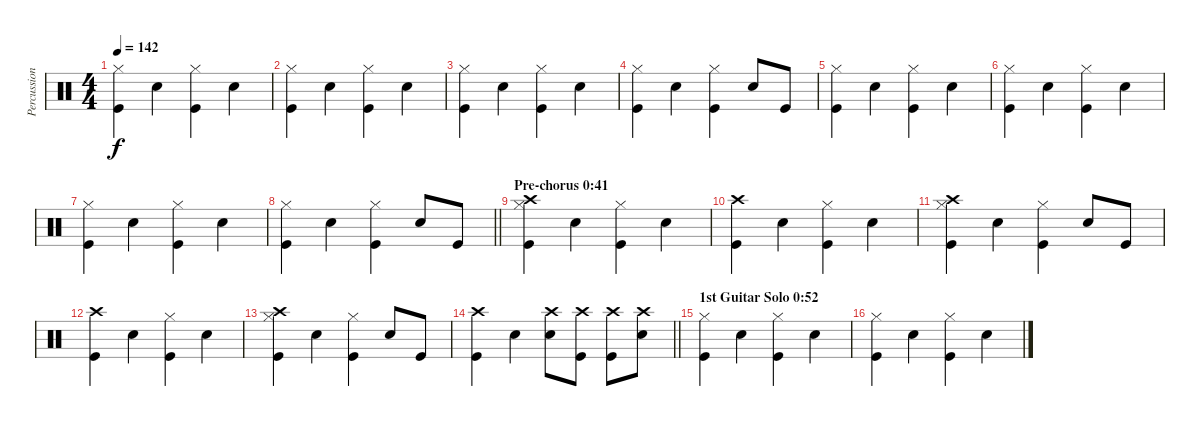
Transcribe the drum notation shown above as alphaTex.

\track ("Percussion" "Percussion") {instrument percussion}
\staff {score}
\articulation defaults
\ts (4 4)
\tempo 142
\clef neutral
\ks c
("Hi-Hat (closed)" "Kick (hit)").4{dy f} "Snare (hit) 2".4 ("Hi-Hat (closed)" "Kick (hit)").4 "Snare (hit) 2".4 |
("Hi-Hat (closed)" "Kick (hit)").4 "Snare (hit) 2".4 ("Hi-Hat (closed)" "Kick (hit)").4 "Snare (hit) 2".4 |
("Hi-Hat (closed)" "Kick (hit)").4 "Snare (hit) 2".4 ("Hi-Hat (closed)" "Kick (hit)").4 "Snare (hit) 2".4 |
("Hi-Hat (closed)" "Kick (hit)").4 "Snare (hit) 2".4 ("Hi-Hat (closed)" "Kick (hit)").4 "Snare (hit) 2".8 "Kick (hit)".8 |
("Hi-Hat (closed)" "Kick (hit)").4 "Snare (hit) 2".4 ("Hi-Hat (closed)" "Kick (hit)").4 "Snare (hit) 2".4 |
("Hi-Hat (closed)" "Kick (hit)").4 "Snare (hit) 2".4 ("Hi-Hat (closed)" "Kick (hit)").4 "Snare (hit) 2".4 |
("Hi-Hat (closed)" "Kick (hit)").4 "Snare (hit) 2".4 ("Hi-Hat (closed)" "Kick (hit)").4 "Snare (hit) 2".4 |
\barLineRight lightlight
("Hi-Hat (closed)" "Kick (hit)").4 "Snare (hit) 2".4 ("Hi-Hat (closed)" "Kick (hit)").4 "Snare (hit) 2".8 "Kick (hit)".8 |
\section ("" "Pre-chorus 0:41")
("Crash high (hit)" "Hi-Hat (closed)" "Kick (hit)").4 "Snare (hit) 2".4 ("Hi-Hat (closed)" "Kick (hit)").4 "Snare (hit) 2".4 |
("Crash high (hit)" "Kick (hit)").4 "Snare (hit) 2".4 ("Hi-Hat (closed)" "Kick (hit)").4 "Snare (hit) 2".4 |
("Crash high (hit)" "Hi-Hat (closed)" "Kick (hit)").4 "Snare (hit) 2".4 ("Hi-Hat (closed)" "Kick (hit)").4 "Snare (hit) 2".8 "Kick (hit)".8 |
("Crash high (hit)" "Kick (hit)").4 "Snare (hit) 2".4 ("Hi-Hat (closed)" "Kick (hit)").4 "Snare (hit) 2".4 |
("Crash high (hit)" "Hi-Hat (closed)" "Kick (hit)").4 "Snare (hit) 2".4 ("Hi-Hat (closed)" "Kick (hit)").4 "Snare (hit) 2".8 "Kick (hit)".8 |
\barLineRight lightlight
("Crash high (hit)" "Kick (hit)").4 "Snare (hit) 2".4 ("Crash high (hit)" "Snare (hit) 2").8 ("Crash high (hit)" "Kick (hit)").8 ("Crash high (hit)" "Kick (hit)").8 ("Crash high (hit)" "Snare (hit) 2").8 |
\section ("" "1st Guitar Solo 0:52")
("Hi-Hat (closed)" "Kick (hit)").4 "Snare (hit) 2".4 ("Hi-Hat (closed)" "Kick (hit)").4 "Snare (hit) 2".4 |
("Hi-Hat (closed)" "Kick (hit)").4 "Snare (hit) 2".4 ("Hi-Hat (closed)" "Kick (hit)").4 "Snare (hit) 2".4
